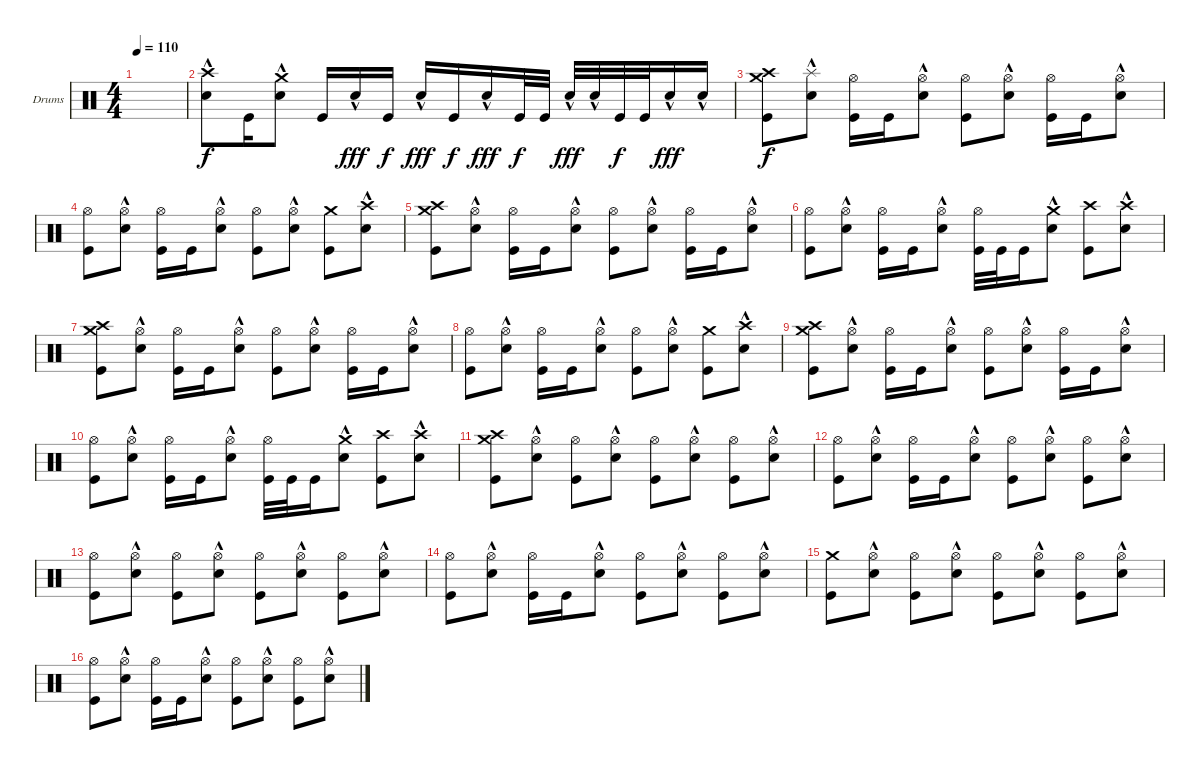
\bracketExtendMode groupsimilarinstruments
\firstSystemTrackNameOrientation horizontal
\otherSystemsTrackNameOrientation horizontal
\track ("Drumkit (Christoph)" "Drums") {instrument percussion}
\staff {score}
\articulation defaults
\ts (4 4)
\tempo 110
\clef neutral
\ks c
|
("Crash high (hit)" "Snare (hit) 2"{hac}).8 "Kick (hit)".16 ("Crash medium (hit)" "Snare (hit) 2"{hac}).8 "Kick (hit)".16 "Snare (hit) 2"{hac}.16{dy fff} "Kick (hit)".16{dy f} "Snare (hit) 2"{hac}.16{dy fff} "Kick (hit)".16{dy f} "Snare (hit) 2"{hac}.16{dy fff} "Kick (hit)".32{dy f} "Kick (hit)".32 "Snare (hit) 2"{hac}.32{dy fff} "Snare (hit) 2"{hac}.32 "Kick (hit)".32{dy f} "Kick (hit)".32 "Snare (hit) 2"{hac}.16{dy fff} "Snare (hit) 2"{hac}.16 |
("Crash medium (hit)" "Kick (hit)" "Crash high (hit)").8{dy f} ("Splash (hit)" "Snare (hit) 2"{hac}).8 ("Hi-Hat (open)" "Kick (hit)").16 "Kick (hit)".16 ("Hi-Hat (open)" "Snare (hit) 2"{hac}).8 ("Hi-Hat (open)" "Kick (hit)").8 ("Hi-Hat (open)" "Snare (hit) 2"{hac}).8 ("Hi-Hat (open)" "Kick (hit)").16 "Kick (hit)".16 ("Hi-Hat (open)" "Snare (hit) 2"{hac}).8 |
("Hi-Hat (open)" "Kick (hit)").8 ("Hi-Hat (open)" "Snare (hit) 2"{hac}).8 ("Hi-Hat (open)" "Kick (hit)").16 "Kick (hit)".16 ("Hi-Hat (open)" "Snare (hit) 2"{hac}).8 ("Hi-Hat (open)" "Kick (hit)").8 ("Hi-Hat (open)" "Snare (hit) 2"{hac}).8 ("Crash medium (hit)" "Kick (hit)").8 ("Crash high (hit)" "Snare (hit) 2"{hac}).8 |
("Crash medium (hit)" "Kick (hit)" "Crash high (hit)").8 ("Hi-Hat (open)" "Snare (hit) 2"{hac}).8 ("Hi-Hat (open)" "Kick (hit)").16 "Kick (hit)".16 ("Hi-Hat (open)" "Snare (hit) 2"{hac}).8 ("Hi-Hat (open)" "Kick (hit)").8 ("Hi-Hat (open)" "Snare (hit) 2"{hac}).8 ("Hi-Hat (open)" "Kick (hit)").16 "Kick (hit)".16 ("Hi-Hat (open)" "Snare (hit) 2"{hac}).8 |
("Hi-Hat (open)" "Kick (hit)").8 ("Hi-Hat (open)" "Snare (hit) 2"{hac}).8 ("Hi-Hat (open)" "Kick (hit)").16 "Kick (hit)".16 ("Hi-Hat (open)" "Snare (hit) 2"{hac}).8 ("Hi-Hat (open)" "Kick (hit)").32 "Kick (hit)".32 "Kick (hit)".16 ("Crash medium (hit)" "Snare (hit) 2"{hac}).8 ("Crash high (hit)" "Kick (hit)").8 ("Crash high (hit)" "Snare (hit) 2"{hac}).8 |
("Crash medium (hit)" "Kick (hit)" "Crash high (hit)").8 ("Hi-Hat (open)" "Snare (hit) 2"{hac}).8 ("Hi-Hat (open)" "Kick (hit)").16 "Kick (hit)".16 ("Hi-Hat (open)" "Snare (hit) 2"{hac}).8 ("Hi-Hat (open)" "Kick (hit)").8 ("Hi-Hat (open)" "Snare (hit) 2"{hac}).8 ("Hi-Hat (open)" "Kick (hit)").16 "Kick (hit)".16 ("Hi-Hat (open)" "Snare (hit) 2"{hac}).8 |
("Hi-Hat (open)" "Kick (hit)").8 ("Hi-Hat (open)" "Snare (hit) 2"{hac}).8 ("Hi-Hat (open)" "Kick (hit)").16 "Kick (hit)".16 ("Hi-Hat (open)" "Snare (hit) 2"{hac}).8 ("Hi-Hat (open)" "Kick (hit)").8 ("Hi-Hat (open)" "Snare (hit) 2"{hac}).8 ("Crash medium (hit)" "Kick (hit)").8 ("Crash high (hit)" "Snare (hit) 2"{hac}).8 |
("Crash medium (hit)" "Kick (hit)" "Crash high (hit)").8 ("Hi-Hat (open)" "Snare (hit) 2"{hac}).8 ("Hi-Hat (open)" "Kick (hit)").16 "Kick (hit)".16 ("Hi-Hat (open)" "Snare (hit) 2"{hac}).8 ("Hi-Hat (open)" "Kick (hit)").8 ("Hi-Hat (open)" "Snare (hit) 2"{hac}).8 ("Hi-Hat (open)" "Kick (hit)").16 "Kick (hit)".16 ("Hi-Hat (open)" "Snare (hit) 2"{hac}).8 |
("Hi-Hat (open)" "Kick (hit)").8 ("Hi-Hat (open)" "Snare (hit) 2"{hac}).8 ("Hi-Hat (open)" "Kick (hit)").16 "Kick (hit)".16 ("Hi-Hat (open)" "Snare (hit) 2"{hac}).8 ("Hi-Hat (open)" "Kick (hit)").32 "Kick (hit)".32 "Kick (hit)".16 ("Crash medium (hit)" "Snare (hit) 2"{hac}).8 ("Crash high (hit)" "Kick (hit)").8 ("Crash high (hit)" "Snare (hit) 2"{hac}).8 |
("Crash medium (hit)" "Kick (hit)" "Crash high (hit)").8 ("Hi-Hat (open)" "Snare (hit) 2"{hac}).8 ("Hi-Hat (open)" "Kick (hit)").8 ("Hi-Hat (open)" "Snare (hit) 2"{hac}).8 ("Hi-Hat (open)" "Kick (hit)").8 ("Hi-Hat (open)" "Snare (hit) 2"{hac}).8 ("Hi-Hat (open)" "Kick (hit)").8 ("Hi-Hat (open)" "Snare (hit) 2"{hac}).8 |
("Hi-Hat (open)" "Kick (hit)").8 ("Hi-Hat (open)" "Snare (hit) 2"{hac}).8 ("Hi-Hat (open)" "Kick (hit)").16 "Kick (hit)".16 ("Hi-Hat (open)" "Snare (hit) 2"{hac}).8 ("Hi-Hat (open)" "Kick (hit)").8 ("Hi-Hat (open)" "Snare (hit) 2"{hac}).8 ("Hi-Hat (open)" "Kick (hit)").8 ("Hi-Hat (open)" "Snare (hit) 2"{hac}).8 |
("Hi-Hat (open)" "Kick (hit)").8 ("Hi-Hat (open)" "Snare (hit) 2"{hac}).8 ("Hi-Hat (open)" "Kick (hit)").8 ("Hi-Hat (open)" "Snare (hit) 2"{hac}).8 ("Hi-Hat (open)" "Kick (hit)").8 ("Hi-Hat (open)" "Snare (hit) 2"{hac}).8 ("Hi-Hat (open)" "Kick (hit)").8 ("Hi-Hat (open)" "Snare (hit) 2"{hac}).8 |
("Hi-Hat (open)" "Kick (hit)").8 ("Hi-Hat (open)" "Snare (hit) 2"{hac}).8 ("Hi-Hat (open)" "Kick (hit)").16 "Kick (hit)".16 ("Hi-Hat (open)" "Snare (hit) 2"{hac}).8 ("Hi-Hat (open)" "Kick (hit)").8 ("Hi-Hat (open)" "Snare (hit) 2"{hac}).8 ("Hi-Hat (open)" "Kick (hit)").8 ("Hi-Hat (open)" "Snare (hit) 2"{hac}).8 |
("Crash medium (hit)" "Kick (hit)").8 ("Hi-Hat (open)" "Snare (hit) 2"{hac}).8 ("Hi-Hat (open)" "Kick (hit)").8 ("Hi-Hat (open)" "Snare (hit) 2"{hac}).8 ("Hi-Hat (open)" "Kick (hit)").8 ("Hi-Hat (open)" "Snare (hit) 2"{hac}).8 ("Hi-Hat (open)" "Kick (hit)").8 ("Hi-Hat (open)" "Snare (hit) 2"{hac}).8 |
("Hi-Hat (open)" "Kick (hit)").8 ("Hi-Hat (open)" "Snare (hit) 2"{hac}).8 ("Hi-Hat (open)" "Kick (hit)").16 "Kick (hit)".16 ("Hi-Hat (open)" "Snare (hit) 2"{hac}).8 ("Hi-Hat (open)" "Kick (hit)").8 ("Hi-Hat (open)" "Snare (hit) 2"{hac}).8 ("Hi-Hat (open)" "Kick (hit)").8 ("Hi-Hat (open)" "Snare (hit) 2"{hac}).8
